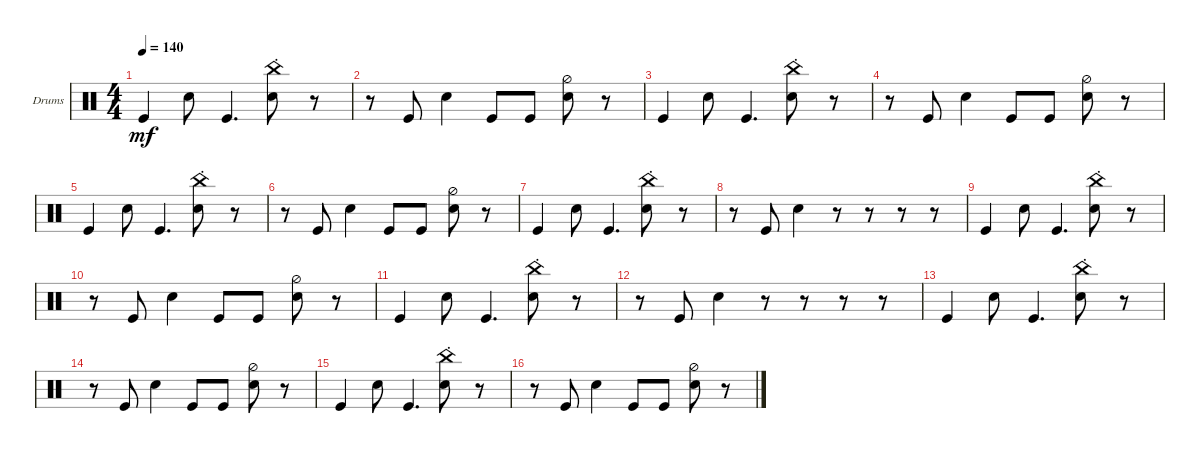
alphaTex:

\defaultSystemsLayout 4
\bracketExtendMode groupsimilarinstruments
\firstSystemTrackNameOrientation horizontal
\otherSystemsTrackNameOrientation horizontal
\track ("Drumkit" "Drums") {instrument percussion}
\staff {score}
\articulation defaults
\ts (4 4)
\tempo 140
\clef neutral
\ks c "Kick (hit)".4{dy mf} "Snare (hit) 2".8 "Kick (hit)".4{d}
("Snare (hit) 2" "China (hit)"{st}).8 r.8 |
r.8 "Kick (hit)".8 "Snare (hit) 2".4 "Kick (hit)".8 "Kick (hit)".8 ("Snare (hit) 2" "Hi-Hat (half)").8 r.8 |
"Kick (hit)".4 "Snare (hit) 2".8 "Kick (hit)".4{d} ("Snare (hit) 2" "China (hit)"{st}).8 r.8 |
r.8 "Kick (hit)".8 "Snare (hit) 2".4 "Kick (hit)".8 "Kick (hit)".8 ("Snare (hit) 2" "Hi-Hat (half)").8 r.8 |
"Kick (hit)".4 "Snare (hit) 2".8 "Kick (hit)".4{d} ("Snare (hit) 2" "China (hit)"{st}).8 r.8 |
r.8 "Kick (hit)".8 "Snare (hit) 2".4 "Kick (hit)".8 "Kick (hit)".8 ("Snare (hit) 2" "Hi-Hat (half)").8 r.8 |
"Kick (hit)".4 "Snare (hit) 2".8 "Kick (hit)".4{d} ("Snare (hit) 2" "China (hit)"{st}).8 r.8 |
r.8 "Kick (hit)".8 "Snare (hit) 2".4 r.8 r.8 r.8 r.8 |
"Kick (hit)".4 "Snare (hit) 2".8 "Kick (hit)".4{d} ("Snare (hit) 2" "China (hit)"{st}).8 r.8 |
r.8 "Kick (hit)".8 "Snare (hit) 2".4 "Kick (hit)".8 "Kick (hit)".8 ("Snare (hit) 2" "Hi-Hat (half)").8 r.8 |
"Kick (hit)".4 "Snare (hit) 2".8 "Kick (hit)".4{d} ("Snare (hit) 2" "China (hit)"{st}).8 r.8 |
r.8 "Kick (hit)".8 "Snare (hit) 2".4 r.8 r.8 r.8 r.8 |
"Kick (hit)".4 "Snare (hit) 2".8 "Kick (hit)".4{d} ("Snare (hit) 2" "China (hit)"{st}).8 r.8 |
r.8 "Kick (hit)".8 "Snare (hit) 2".4 "Kick (hit)".8 "Kick (hit)".8 ("Snare (hit) 2" "Hi-Hat (half)").8 r.8 |
"Kick (hit)".4 "Snare (hit) 2".8 "Kick (hit)".4{d} ("Snare (hit) 2" "China (hit)"{st}).8 r.8 |
r.8 "Kick (hit)".8 "Snare (hit) 2".4 "Kick (hit)".8 "Kick (hit)".8 ("Snare (hit) 2" "Hi-Hat (half)").8 r.8
